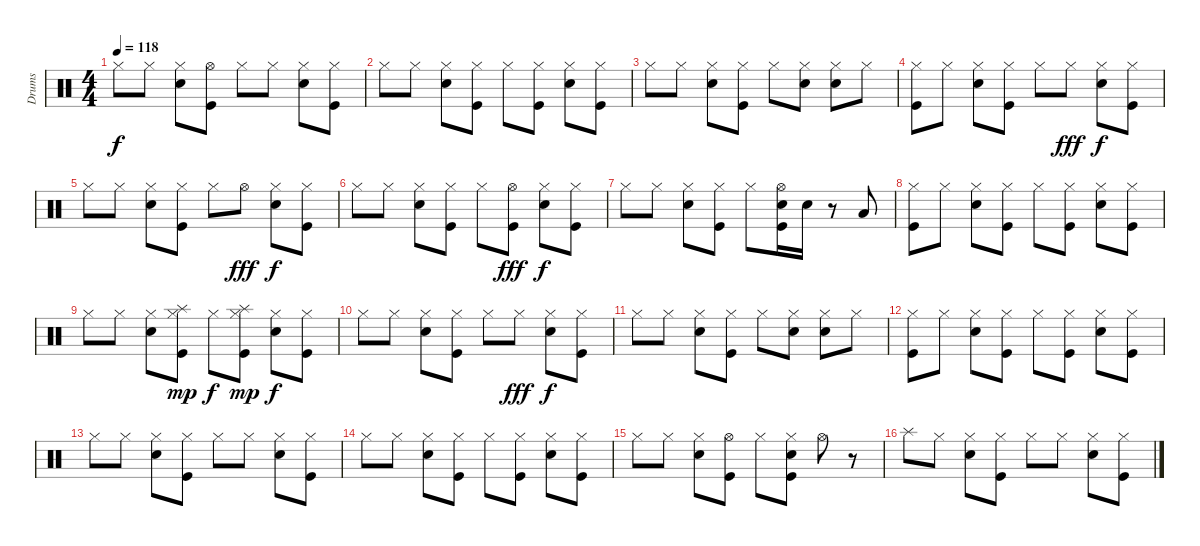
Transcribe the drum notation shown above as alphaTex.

\track ("Drums" "Drums") {instrument percussion}
\staff {score}
\articulation defaults
\ts (4 4)
\tempo 118
\clef neutral
\ks c "Hi-Hat (closed)".8{dy f} "Hi-Hat (closed)".8
("Hi-Hat (closed)" "Snare (hit) 2").8 ("Hi-Hat (open)" "Kick (hit)").8 "Hi-Hat (closed)".8 "Hi-Hat (closed)".8 ("Hi-Hat (closed)" "Snare (hit) 2").8 ("Hi-Hat (closed)" "Kick (hit)").8 |
"Hi-Hat (closed)".8 "Hi-Hat (closed)".8 ("Hi-Hat (closed)" "Snare (hit) 2").8 ("Hi-Hat (closed)" "Kick (hit)").8 "Hi-Hat (closed)".8 ("Hi-Hat (closed)" "Kick (hit)").8 ("Hi-Hat (closed)" "Snare (hit) 2").8 ("Hi-Hat (closed)" "Kick (hit)").8 |
"Hi-Hat (closed)".8 "Hi-Hat (closed)".8 ("Hi-Hat (closed)" "Snare (hit) 2").8 ("Hi-Hat (closed)" "Kick (hit)").8 "Hi-Hat (closed)".8 ("Hi-Hat (closed)" "Snare (hit) 2").8 ("Hi-Hat (closed)" "Snare (hit) 2").8 "Hi-Hat (closed)".8 |
("Hi-Hat (closed)" "Kick (hit)").8 "Hi-Hat (closed)".8 ("Hi-Hat (closed)" "Snare (hit) 2").8 ("Hi-Hat (closed)" "Kick (hit)").8 "Hi-Hat (closed)".8 "Hi-Hat (closed)".8{dy fff} ("Hi-Hat (closed)" "Snare (hit) 2").8{dy f} ("Hi-Hat (closed)" "Kick (hit)").8 |
"Hi-Hat (closed)".8 "Hi-Hat (closed)".8 ("Hi-Hat (closed)" "Snare (hit) 2").8 ("Hi-Hat (closed)" "Kick (hit)").8 "Hi-Hat (closed)".8 "Hi-Hat (open)".8{dy fff} ("Hi-Hat (closed)" "Snare (hit) 2").8{dy f} ("Hi-Hat (closed)" "Kick (hit)").8 |
"Hi-Hat (closed)".8 "Hi-Hat (closed)".8 ("Hi-Hat (closed)" "Snare (hit) 2").8 ("Hi-Hat (closed)" "Kick (hit)").8 "Hi-Hat (closed)".8 ("Hi-Hat (open)" "Kick (hit)").8{dy fff} ("Hi-Hat (closed)" "Snare (hit) 2").8{dy f} ("Hi-Hat (closed)" "Kick (hit)").8 |
"Hi-Hat (closed)".8 "Hi-Hat (closed)".8 ("Hi-Hat (closed)" "Snare (hit) 2").8 ("Hi-Hat (closed)" "Kick (hit)").8 "Hi-Hat (closed)".8 ("Hi-Hat (open)" "Snare (hit) 2" "Kick (hit)").16 "Snare (hit) 2".16 r.8 "Low Floor Tom (hit)".8 |
("Hi-Hat (closed)" "Kick (hit)").8 "Hi-Hat (closed)".8 ("Hi-Hat (closed)" "Snare (hit) 2").8 ("Hi-Hat (closed)" "Kick (hit)").8 "Hi-Hat (closed)".8 ("Hi-Hat (closed)" "Kick (hit)").8 ("Hi-Hat (closed)" "Snare (hit) 2").8 ("Hi-Hat (closed)" "Kick (hit)").8 |
"Hi-Hat (closed)".8 "Hi-Hat (closed)".8 ("Hi-Hat (closed)" "Snare (hit) 2").8 ("Hi-Hat (closed)" "Splash (hit)" "Kick (hit)").8{dy mp} "Hi-Hat (closed)".8{dy f} ("Hi-Hat (closed)" "Splash (hit)" "Kick (hit)").8{dy mp} ("Hi-Hat (closed)" "Snare (hit) 2").8{dy f} ("Hi-Hat (closed)" "Kick (hit)").8 |
"Hi-Hat (closed)".8 "Hi-Hat (closed)".8 ("Hi-Hat (closed)" "Snare (hit) 2").8 ("Hi-Hat (closed)" "Kick (hit)").8 "Hi-Hat (closed)".8 "Hi-Hat (closed)".8{dy fff} ("Hi-Hat (closed)" "Snare (hit) 2").8{dy f} ("Hi-Hat (closed)" "Kick (hit)").8 |
"Hi-Hat (closed)".8 "Hi-Hat (closed)".8 ("Hi-Hat (closed)" "Snare (hit) 2").8 ("Hi-Hat (closed)" "Kick (hit)").8 "Hi-Hat (closed)".8 ("Hi-Hat (closed)" "Snare (hit) 2").8 ("Hi-Hat (closed)" "Snare (hit) 2").8 "Hi-Hat (closed)".8 |
("Hi-Hat (closed)" "Kick (hit)").8 "Hi-Hat (closed)".8 ("Hi-Hat (closed)" "Snare (hit) 2").8 ("Hi-Hat (closed)" "Kick (hit)").8 "Hi-Hat (closed)".8 ("Hi-Hat (closed)" "Kick (hit)").8 ("Hi-Hat (closed)" "Snare (hit) 2").8 ("Hi-Hat (closed)" "Kick (hit)").8 |
"Hi-Hat (closed)".8 "Hi-Hat (closed)".8 ("Hi-Hat (closed)" "Snare (hit) 2").8 ("Hi-Hat (closed)" "Kick (hit)").8 "Hi-Hat (closed)".8 "Hi-Hat (closed)".8 ("Hi-Hat (closed)" "Snare (hit) 2").8 ("Hi-Hat (closed)" "Kick (hit)").8 |
"Hi-Hat (closed)".8 "Hi-Hat (closed)".8 ("Hi-Hat (closed)" "Snare (hit) 2").8 ("Hi-Hat (closed)" "Kick (hit)").8 "Hi-Hat (closed)".8 ("Hi-Hat (closed)" "Kick (hit)").8 ("Hi-Hat (closed)" "Snare (hit) 2").8 ("Hi-Hat (closed)" "Kick (hit)").8 |
"Hi-Hat (closed)".8 "Hi-Hat (closed)".8 ("Hi-Hat (closed)" "Snare (hit) 2").8 ("Hi-Hat (open)" "Kick (hit)").8 "Hi-Hat (closed)".8 ("Hi-Hat (closed)" "Snare (hit) 2" "Kick (hit)").8 "Hi-Hat (open)".8 r.8 |
"Splash (hit)".8 "Hi-Hat (closed)".8 ("Hi-Hat (closed)" "Snare (hit) 2").8 ("Hi-Hat (closed)" "Kick (hit)").8 "Hi-Hat (closed)".8 "Hi-Hat (closed)".8 ("Hi-Hat (closed)" "Snare (hit) 2").8 ("Hi-Hat (closed)" "Kick (hit)").8
